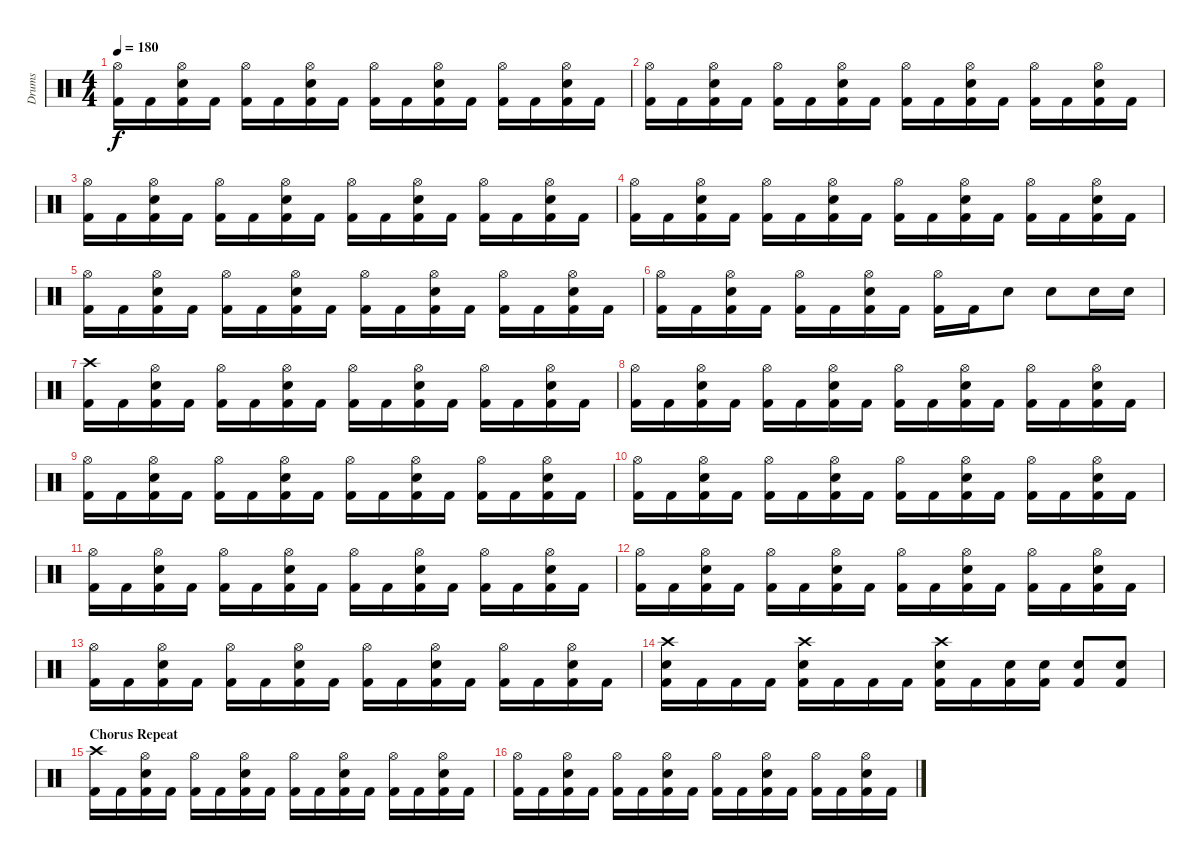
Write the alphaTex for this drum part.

\track ("Drums" "Drums") {instrument percussion}
\staff {score}
\articulation defaults
\ts (4 4)
\tempo 180
\clef neutral
\ks c
("Hi-Hat (open)" "Kick (hit) 2").16{dy f} "Kick (hit) 2".16 ("Hi-Hat (open)" "Snare (hit) 2" "Kick (hit) 2").16 "Kick (hit) 2".16 ("Hi-Hat (open)" "Kick (hit) 2").16 "Kick (hit) 2".16 ("Hi-Hat (open)" "Snare (hit) 2" "Kick (hit) 2").16 "Kick (hit) 2".16 ("Hi-Hat (open)" "Kick (hit) 2").16 "Kick (hit) 2".16 ("Hi-Hat (open)" "Snare (hit) 2" "Kick (hit) 2").16 "Kick (hit) 2".16 ("Hi-Hat (open)" "Kick (hit) 2").16 "Kick (hit) 2".16 ("Hi-Hat (open)" "Snare (hit) 2" "Kick (hit) 2").16 "Kick (hit) 2".16 |
("Hi-Hat (open)" "Kick (hit) 2").16 "Kick (hit) 2".16 ("Hi-Hat (open)" "Snare (hit) 2" "Kick (hit) 2").16 "Kick (hit) 2".16 ("Hi-Hat (open)" "Kick (hit) 2").16 "Kick (hit) 2".16 ("Hi-Hat (open)" "Snare (hit) 2" "Kick (hit) 2").16 "Kick (hit) 2".16 ("Hi-Hat (open)" "Kick (hit) 2").16 "Kick (hit) 2".16 ("Hi-Hat (open)" "Snare (hit) 2" "Kick (hit) 2").16 "Kick (hit) 2".16 ("Hi-Hat (open)" "Kick (hit) 2").16 "Kick (hit) 2".16 ("Hi-Hat (open)" "Snare (hit) 2" "Kick (hit) 2").16 "Kick (hit) 2".16 |
("Hi-Hat (open)" "Kick (hit) 2").16 "Kick (hit) 2".16 ("Hi-Hat (open)" "Snare (hit) 2" "Kick (hit) 2").16 "Kick (hit) 2".16 ("Hi-Hat (open)" "Kick (hit) 2").16 "Kick (hit) 2".16 ("Hi-Hat (open)" "Snare (hit) 2" "Kick (hit) 2").16 "Kick (hit) 2".16 ("Hi-Hat (open)" "Kick (hit) 2").16 "Kick (hit) 2".16 ("Hi-Hat (open)" "Snare (hit) 2" "Kick (hit) 2").16 "Kick (hit) 2".16 ("Hi-Hat (open)" "Kick (hit) 2").16 "Kick (hit) 2".16 ("Hi-Hat (open)" "Snare (hit) 2" "Kick (hit) 2").16 "Kick (hit) 2".16 |
("Hi-Hat (open)" "Kick (hit) 2").16 "Kick (hit) 2".16 ("Hi-Hat (open)" "Snare (hit) 2" "Kick (hit) 2").16 "Kick (hit) 2".16 ("Hi-Hat (open)" "Kick (hit) 2").16 "Kick (hit) 2".16 ("Hi-Hat (open)" "Snare (hit) 2" "Kick (hit) 2").16 "Kick (hit) 2".16 ("Hi-Hat (open)" "Kick (hit) 2").16 "Kick (hit) 2".16 ("Hi-Hat (open)" "Snare (hit) 2" "Kick (hit) 2").16 "Kick (hit) 2".16 ("Hi-Hat (open)" "Kick (hit) 2").16 "Kick (hit) 2".16 ("Hi-Hat (open)" "Snare (hit) 2" "Kick (hit) 2").16 "Kick (hit) 2".16 |
("Hi-Hat (open)" "Kick (hit) 2").16 "Kick (hit) 2".16 ("Hi-Hat (open)" "Snare (hit) 2" "Kick (hit) 2").16 "Kick (hit) 2".16 ("Hi-Hat (open)" "Kick (hit) 2").16 "Kick (hit) 2".16 ("Hi-Hat (open)" "Snare (hit) 2" "Kick (hit) 2").16 "Kick (hit) 2".16 ("Hi-Hat (open)" "Kick (hit) 2").16 "Kick (hit) 2".16 ("Hi-Hat (open)" "Snare (hit) 2" "Kick (hit) 2").16 "Kick (hit) 2".16 ("Hi-Hat (open)" "Kick (hit) 2").16 "Kick (hit) 2".16 ("Hi-Hat (open)" "Snare (hit) 2" "Kick (hit) 2").16 "Kick (hit) 2".16 |
("Hi-Hat (open)" "Kick (hit) 2").16 "Kick (hit) 2".16 ("Hi-Hat (open)" "Snare (hit) 2" "Kick (hit) 2").16 "Kick (hit) 2".16 ("Hi-Hat (open)" "Kick (hit) 2").16 "Kick (hit) 2".16 ("Hi-Hat (open)" "Snare (hit) 2" "Kick (hit) 2").16 "Kick (hit) 2".16 ("Hi-Hat (open)" "Kick (hit) 2").16 "Kick (hit) 2".16 "Snare (hit) 2".8 "Snare (hit) 2".8 "Snare (hit) 2".16 "Snare (hit) 2".16 |
("Crash high (hit)" "Kick (hit) 2").16 "Kick (hit) 2".16 ("Hi-Hat (open)" "Snare (hit) 2" "Kick (hit) 2").16 "Kick (hit) 2".16 ("Hi-Hat (open)" "Kick (hit) 2").16 "Kick (hit) 2".16 ("Hi-Hat (open)" "Snare (hit) 2" "Kick (hit) 2").16 "Kick (hit) 2".16 ("Hi-Hat (open)" "Kick (hit) 2").16 "Kick (hit) 2".16 ("Hi-Hat (open)" "Snare (hit) 2" "Kick (hit) 2").16 "Kick (hit) 2".16 ("Hi-Hat (open)" "Kick (hit) 2").16 "Kick (hit) 2".16 ("Hi-Hat (open)" "Snare (hit) 2" "Kick (hit) 2").16 "Kick (hit) 2".16 |
("Hi-Hat (open)" "Kick (hit) 2").16 "Kick (hit) 2".16 ("Hi-Hat (open)" "Snare (hit) 2" "Kick (hit) 2").16 "Kick (hit) 2".16 ("Hi-Hat (open)" "Kick (hit) 2").16 "Kick (hit) 2".16 ("Hi-Hat (open)" "Snare (hit) 2" "Kick (hit) 2").16 "Kick (hit) 2".16 ("Hi-Hat (open)" "Kick (hit) 2").16 "Kick (hit) 2".16 ("Hi-Hat (open)" "Snare (hit) 2" "Kick (hit) 2").16 "Kick (hit) 2".16 ("Hi-Hat (open)" "Kick (hit) 2").16 "Kick (hit) 2".16 ("Hi-Hat (open)" "Snare (hit) 2" "Kick (hit) 2").16 "Kick (hit) 2".16 |
("Hi-Hat (open)" "Kick (hit) 2").16 "Kick (hit) 2".16 ("Hi-Hat (open)" "Snare (hit) 2" "Kick (hit) 2").16 "Kick (hit) 2".16 ("Hi-Hat (open)" "Kick (hit) 2").16 "Kick (hit) 2".16 ("Hi-Hat (open)" "Snare (hit) 2" "Kick (hit) 2").16 "Kick (hit) 2".16 ("Hi-Hat (open)" "Kick (hit) 2").16 "Kick (hit) 2".16 ("Hi-Hat (open)" "Snare (hit) 2" "Kick (hit) 2").16 "Kick (hit) 2".16 ("Hi-Hat (open)" "Kick (hit) 2").16 "Kick (hit) 2".16 ("Hi-Hat (open)" "Snare (hit) 2" "Kick (hit) 2").16 "Kick (hit) 2".16 |
("Hi-Hat (open)" "Kick (hit) 2").16 "Kick (hit) 2".16 ("Hi-Hat (open)" "Snare (hit) 2" "Kick (hit) 2").16 "Kick (hit) 2".16 ("Hi-Hat (open)" "Kick (hit) 2").16 "Kick (hit) 2".16 ("Hi-Hat (open)" "Snare (hit) 2" "Kick (hit) 2").16 "Kick (hit) 2".16 ("Hi-Hat (open)" "Kick (hit) 2").16 "Kick (hit) 2".16 ("Hi-Hat (open)" "Snare (hit) 2" "Kick (hit) 2").16 "Kick (hit) 2".16 ("Hi-Hat (open)" "Kick (hit) 2").16 "Kick (hit) 2".16 ("Hi-Hat (open)" "Snare (hit) 2" "Kick (hit) 2").16 "Kick (hit) 2".16 |
("Hi-Hat (open)" "Kick (hit) 2").16 "Kick (hit) 2".16 ("Hi-Hat (open)" "Snare (hit) 2" "Kick (hit) 2").16 "Kick (hit) 2".16 ("Hi-Hat (open)" "Kick (hit) 2").16 "Kick (hit) 2".16 ("Hi-Hat (open)" "Snare (hit) 2" "Kick (hit) 2").16 "Kick (hit) 2".16 ("Hi-Hat (open)" "Kick (hit) 2").16 "Kick (hit) 2".16 ("Hi-Hat (open)" "Snare (hit) 2" "Kick (hit) 2").16 "Kick (hit) 2".16 ("Hi-Hat (open)" "Kick (hit) 2").16 "Kick (hit) 2".16 ("Hi-Hat (open)" "Snare (hit) 2" "Kick (hit) 2").16 "Kick (hit) 2".16 |
("Hi-Hat (open)" "Kick (hit) 2").16 "Kick (hit) 2".16 ("Hi-Hat (open)" "Snare (hit) 2" "Kick (hit) 2").16 "Kick (hit) 2".16 ("Hi-Hat (open)" "Kick (hit) 2").16 "Kick (hit) 2".16 ("Hi-Hat (open)" "Snare (hit) 2" "Kick (hit) 2").16 "Kick (hit) 2".16 ("Hi-Hat (open)" "Kick (hit) 2").16 "Kick (hit) 2".16 ("Hi-Hat (open)" "Snare (hit) 2" "Kick (hit) 2").16 "Kick (hit) 2".16 ("Hi-Hat (open)" "Kick (hit) 2").16 "Kick (hit) 2".16 ("Hi-Hat (open)" "Snare (hit) 2" "Kick (hit) 2").16 "Kick (hit) 2".16 |
("Hi-Hat (open)" "Kick (hit) 2").16 "Kick (hit) 2".16 ("Hi-Hat (open)" "Snare (hit) 2" "Kick (hit) 2").16 "Kick (hit) 2".16 ("Hi-Hat (open)" "Kick (hit) 2").16 "Kick (hit) 2".16 ("Hi-Hat (open)" "Snare (hit) 2" "Kick (hit) 2").16 "Kick (hit) 2".16 ("Hi-Hat (open)" "Kick (hit) 2").16 "Kick (hit) 2".16 ("Hi-Hat (open)" "Snare (hit) 2" "Kick (hit) 2").16 "Kick (hit) 2".16 ("Hi-Hat (open)" "Kick (hit) 2").16 "Kick (hit) 2".16 ("Hi-Hat (open)" "Snare (hit) 2" "Kick (hit) 2").16 "Kick (hit) 2".16 |
("Crash high (hit)" "Snare (hit) 2" "Kick (hit) 2").16 "Kick (hit) 2".16 "Kick (hit) 2".16 "Kick (hit) 2".16 ("Crash high (hit)" "Snare (hit) 2" "Kick (hit) 2").16 "Kick (hit) 2".16 "Kick (hit) 2".16 "Kick (hit) 2".16 ("Crash high (hit)" "Snare (hit) 2" "Kick (hit) 2").16 "Kick (hit) 2".16 ("Snare (hit) 2" "Kick (hit) 2").16 ("Snare (hit) 2" "Kick (hit) 2").16 ("Snare (hit) 2" "Kick (hit) 2").8 ("Snare (hit) 2" "Kick (hit) 2").8 |
\section ("" "Chorus Repeat")
("Crash high (hit)" "Kick (hit) 2").16 "Kick (hit) 2".16 ("Hi-Hat (open)" "Snare (hit) 2" "Kick (hit) 2").16 "Kick (hit) 2".16 ("Hi-Hat (open)" "Kick (hit) 2").16 "Kick (hit) 2".16 ("Hi-Hat (open)" "Snare (hit) 2" "Kick (hit) 2").16 "Kick (hit) 2".16 ("Hi-Hat (open)" "Kick (hit) 2").16 "Kick (hit) 2".16 ("Hi-Hat (open)" "Snare (hit) 2" "Kick (hit) 2").16 "Kick (hit) 2".16 ("Hi-Hat (open)" "Kick (hit) 2").16 "Kick (hit) 2".16 ("Hi-Hat (open)" "Snare (hit) 2" "Kick (hit) 2").16 "Kick (hit) 2".16 |
("Hi-Hat (open)" "Kick (hit) 2").16 "Kick (hit) 2".16 ("Hi-Hat (open)" "Snare (hit) 2" "Kick (hit) 2").16 "Kick (hit) 2".16 ("Hi-Hat (open)" "Kick (hit) 2").16 "Kick (hit) 2".16 ("Hi-Hat (open)" "Snare (hit) 2" "Kick (hit) 2").16 "Kick (hit) 2".16 ("Hi-Hat (open)" "Kick (hit) 2").16 "Kick (hit) 2".16 ("Hi-Hat (open)" "Snare (hit) 2" "Kick (hit) 2").16 "Kick (hit) 2".16 ("Hi-Hat (open)" "Kick (hit) 2").16 "Kick (hit) 2".16 ("Hi-Hat (open)" "Snare (hit) 2" "Kick (hit) 2").16 "Kick (hit) 2".16
